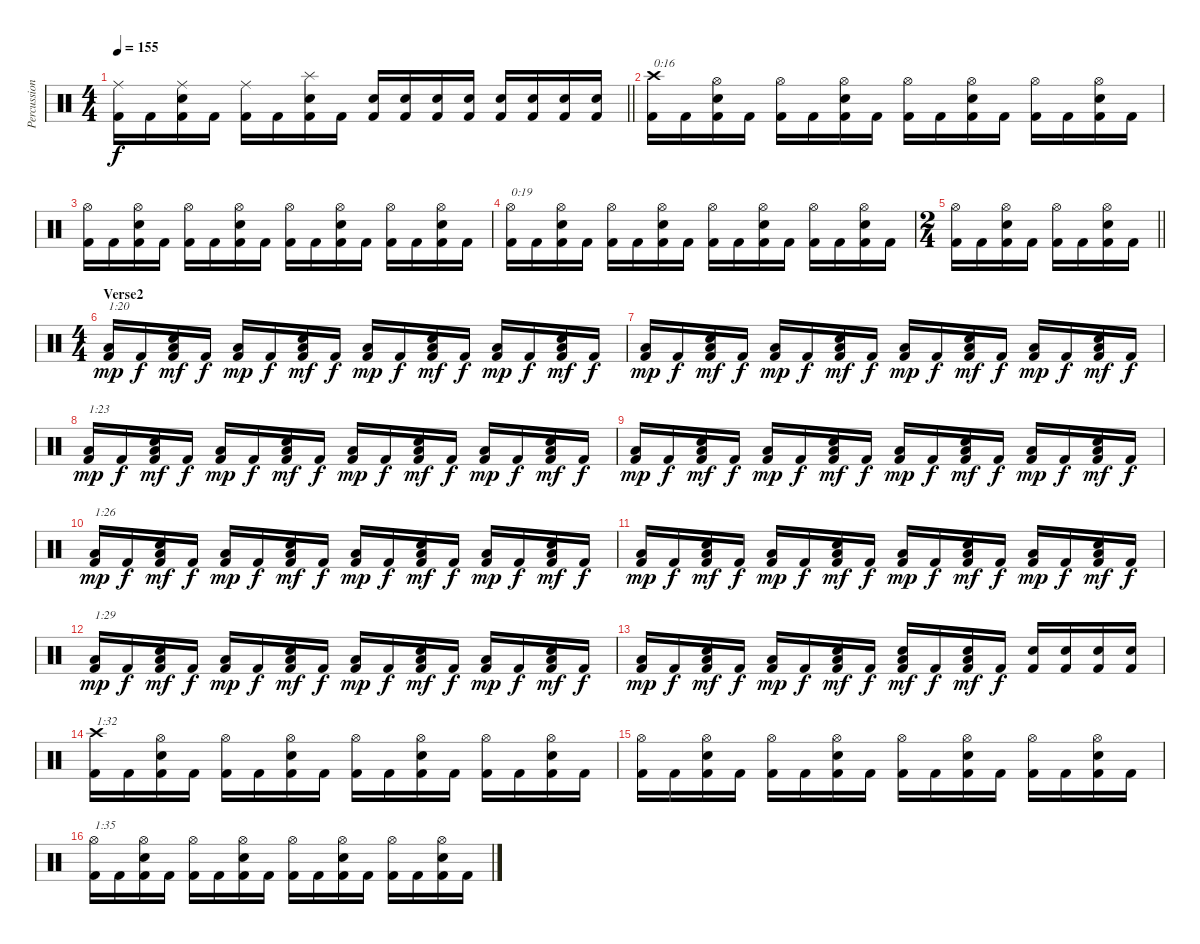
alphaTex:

\track ("Percussion" "Percussion") {instrument percussion}
\staff {score}
\articulation defaults
\ts (4 4)
\tempo 155
\clef neutral
\barLineRight lightlight
\ks c
("Ride (middle)" "Kick (hit) 2").16{dy f} "Kick (hit) 2".16 ("Ride (middle)" "Electric Snare (hit)" "Kick (hit) 2").16 "Kick (hit) 2".16 ("Ride (middle)" "Kick (hit) 2").16 "Kick (hit) 2".16 ("Splash (hit)" "Electric Snare (hit)" "Kick (hit) 2").16 "Kick (hit) 2".16 ("Electric Snare (hit)" "Kick (hit) 2").16 ("Electric Snare (hit)" "Kick (hit) 2").16 ("Electric Snare (hit)" "Kick (hit) 2").16 ("Electric Snare (hit)" "Kick (hit) 2").16 ("Electric Snare (hit)" "Kick (hit) 2").16 ("Electric Snare (hit)" "Kick (hit) 2").16 ("Electric Snare (hit)" "Kick (hit) 2").16 ("Electric Snare (hit)" "Kick (hit) 2").16 |
\section ("" "")
("Crash high (hit)" "Kick (hit) 2").16{txt "0:16"} "Kick (hit) 2".16 ("Hi-Hat (open)" "Electric Snare (hit)" "Kick (hit) 2").16 "Kick (hit) 2".16 ("Hi-Hat (open)" "Kick (hit) 2").16 "Kick (hit) 2".16 ("Hi-Hat (open)" "Electric Snare (hit)" "Kick (hit) 2").16 "Kick (hit) 2".16 ("Hi-Hat (open)" "Kick (hit) 2").16 "Kick (hit) 2".16 ("Hi-Hat (open)" "Electric Snare (hit)" "Kick (hit) 2").16 "Kick (hit) 2".16 ("Hi-Hat (open)" "Kick (hit) 2").16 "Kick (hit) 2".16 ("Hi-Hat (open)" "Electric Snare (hit)" "Kick (hit) 2").16 "Kick (hit) 2".16 |
("Hi-Hat (open)" "Kick (hit) 2").16 "Kick (hit) 2".16 ("Hi-Hat (open)" "Electric Snare (hit)" "Kick (hit) 2").16 "Kick (hit) 2".16 ("Hi-Hat (open)" "Kick (hit) 2").16 "Kick (hit) 2".16 ("Hi-Hat (open)" "Electric Snare (hit)" "Kick (hit) 2").16 "Kick (hit) 2".16 ("Hi-Hat (open)" "Kick (hit) 2").16 "Kick (hit) 2".16 ("Hi-Hat (open)" "Electric Snare (hit)" "Kick (hit) 2").16 "Kick (hit) 2".16 ("Hi-Hat (open)" "Kick (hit) 2").16 "Kick (hit) 2".16 ("Hi-Hat (open)" "Electric Snare (hit)" "Kick (hit) 2").16 "Kick (hit) 2".16 |
("Hi-Hat (open)" "Kick (hit) 2").16{txt "0:19"} "Kick (hit) 2".16 ("Hi-Hat (open)" "Electric Snare (hit)" "Kick (hit) 2").16 "Kick (hit) 2".16 ("Hi-Hat (open)" "Kick (hit) 2").16 "Kick (hit) 2".16 ("Hi-Hat (open)" "Electric Snare (hit)" "Kick (hit) 2").16 "Kick (hit) 2".16 ("Hi-Hat (open)" "Kick (hit) 2").16 "Kick (hit) 2".16 ("Hi-Hat (open)" "Electric Snare (hit)" "Kick (hit) 2").16 "Kick (hit) 2".16 ("Hi-Hat (open)" "Kick (hit) 2").16 "Kick (hit) 2".16 ("Hi-Hat (open)" "Electric Snare (hit)" "Kick (hit) 2").16 "Kick (hit) 2".16 |
\ts (2 4)
\barLineRight lightlight
("Hi-Hat (open)" "Kick (hit) 2").16 "Kick (hit) 2".16 ("Hi-Hat (open)" "Electric Snare (hit)" "Kick (hit) 2").16 "Kick (hit) 2".16 ("Hi-Hat (open)" "Kick (hit) 2").16 "Kick (hit) 2".16 ("Hi-Hat (open)" "Electric Snare (hit)" "Kick (hit) 2").16 "Kick (hit) 2".16 |
\ts (4 4)
\section ("" "Verse2")
("Low Floor Tom (hit)" "Kick (hit) 2").16{txt "1:20" dy mp} "Kick (hit) 2".16{dy f} ("Low Floor Tom (hit)" "Electric Snare (hit)" "Kick (hit) 2").16{dy mf} "Kick (hit) 2".16{dy f} ("Low Floor Tom (hit)" "Kick (hit) 2").16{dy mp} "Kick (hit) 2".16{dy f} ("Low Floor Tom (hit)" "Electric Snare (hit)" "Kick (hit) 2").16{dy mf} "Kick (hit) 2".16{dy f} ("Low Floor Tom (hit)" "Kick (hit) 2").16{dy mp} "Kick (hit) 2".16{dy f} ("Low Floor Tom (hit)" "Electric Snare (hit)" "Kick (hit) 2").16{dy mf} "Kick (hit) 2".16{dy f} ("Low Floor Tom (hit)" "Kick (hit) 2").16{dy mp} "Kick (hit) 2".16{dy f} ("Low Floor Tom (hit)" "Electric Snare (hit)" "Kick (hit) 2").16{dy mf} "Kick (hit) 2".16{dy f} |
("Low Floor Tom (hit)" "Kick (hit) 2").16{dy mp} "Kick (hit) 2".16{dy f} ("Low Floor Tom (hit)" "Electric Snare (hit)" "Kick (hit) 2").16{dy mf} "Kick (hit) 2".16{dy f} ("Low Floor Tom (hit)" "Kick (hit) 2").16{dy mp} "Kick (hit) 2".16{dy f} ("Low Floor Tom (hit)" "Electric Snare (hit)" "Kick (hit) 2").16{dy mf} "Kick (hit) 2".16{dy f} ("Low Floor Tom (hit)" "Kick (hit) 2").16{dy mp} "Kick (hit) 2".16{dy f} ("Low Floor Tom (hit)" "Electric Snare (hit)" "Kick (hit) 2").16{dy mf} "Kick (hit) 2".16{dy f} ("Low Floor Tom (hit)" "Kick (hit) 2").16{dy mp} "Kick (hit) 2".16{dy f} ("Low Floor Tom (hit)" "Electric Snare (hit)" "Kick (hit) 2").16{dy mf} "Kick (hit) 2".16{dy f} |
("Low Floor Tom (hit)" "Kick (hit) 2").16{txt "1:23" dy mp} "Kick (hit) 2".16{dy f} ("Low Floor Tom (hit)" "Electric Snare (hit)" "Kick (hit) 2").16{dy mf} "Kick (hit) 2".16{dy f} ("Low Floor Tom (hit)" "Kick (hit) 2").16{dy mp} "Kick (hit) 2".16{dy f} ("Low Floor Tom (hit)" "Electric Snare (hit)" "Kick (hit) 2").16{dy mf} "Kick (hit) 2".16{dy f} ("Low Floor Tom (hit)" "Kick (hit) 2").16{dy mp} "Kick (hit) 2".16{dy f} ("Low Floor Tom (hit)" "Electric Snare (hit)" "Kick (hit) 2").16{dy mf} "Kick (hit) 2".16{dy f} ("Low Floor Tom (hit)" "Kick (hit) 2").16{dy mp} "Kick (hit) 2".16{dy f} ("Low Floor Tom (hit)" "Electric Snare (hit)" "Kick (hit) 2").16{dy mf} "Kick (hit) 2".16{dy f} |
("Low Floor Tom (hit)" "Kick (hit) 2").16{dy mp} "Kick (hit) 2".16{dy f} ("Low Floor Tom (hit)" "Electric Snare (hit)" "Kick (hit) 2").16{dy mf} "Kick (hit) 2".16{dy f} ("Low Floor Tom (hit)" "Kick (hit) 2").16{dy mp} "Kick (hit) 2".16{dy f} ("Low Floor Tom (hit)" "Electric Snare (hit)" "Kick (hit) 2").16{dy mf} "Kick (hit) 2".16{dy f} ("Low Floor Tom (hit)" "Kick (hit) 2").16{dy mp} "Kick (hit) 2".16{dy f} ("Low Floor Tom (hit)" "Electric Snare (hit)" "Kick (hit) 2").16{dy mf} "Kick (hit) 2".16{dy f} ("Low Floor Tom (hit)" "Kick (hit) 2").16{dy mp} "Kick (hit) 2".16{dy f} ("Low Floor Tom (hit)" "Electric Snare (hit)" "Kick (hit) 2").16{dy mf} "Kick (hit) 2".16{dy f} |
("Low Floor Tom (hit)" "Kick (hit) 2").16{txt "1:26" dy mp} "Kick (hit) 2".16{dy f} ("Low Floor Tom (hit)" "Electric Snare (hit)" "Kick (hit) 2").16{dy mf} "Kick (hit) 2".16{dy f} ("Low Floor Tom (hit)" "Kick (hit) 2").16{dy mp} "Kick (hit) 2".16{dy f} ("Low Floor Tom (hit)" "Electric Snare (hit)" "Kick (hit) 2").16{dy mf} "Kick (hit) 2".16{dy f} ("Low Floor Tom (hit)" "Kick (hit) 2").16{dy mp} "Kick (hit) 2".16{dy f} ("Low Floor Tom (hit)" "Electric Snare (hit)" "Kick (hit) 2").16{dy mf} "Kick (hit) 2".16{dy f} ("Low Floor Tom (hit)" "Kick (hit) 2").16{dy mp} "Kick (hit) 2".16{dy f} ("Low Floor Tom (hit)" "Electric Snare (hit)" "Kick (hit) 2").16{dy mf} "Kick (hit) 2".16{dy f} |
("Low Floor Tom (hit)" "Kick (hit) 2").16{dy mp} "Kick (hit) 2".16{dy f} ("Low Floor Tom (hit)" "Electric Snare (hit)" "Kick (hit) 2").16{dy mf} "Kick (hit) 2".16{dy f} ("Low Floor Tom (hit)" "Kick (hit) 2").16{dy mp} "Kick (hit) 2".16{dy f} ("Low Floor Tom (hit)" "Electric Snare (hit)" "Kick (hit) 2").16{dy mf} "Kick (hit) 2".16{dy f} ("Low Floor Tom (hit)" "Kick (hit) 2").16{dy mp} "Kick (hit) 2".16{dy f} ("Low Floor Tom (hit)" "Electric Snare (hit)" "Kick (hit) 2").16{dy mf} "Kick (hit) 2".16{dy f} ("Low Floor Tom (hit)" "Kick (hit) 2").16{dy mp} "Kick (hit) 2".16{dy f} ("Low Floor Tom (hit)" "Electric Snare (hit)" "Kick (hit) 2").16{dy mf} "Kick (hit) 2".16{dy f} |
("Low Floor Tom (hit)" "Kick (hit) 2").16{txt "1:29" dy mp} "Kick (hit) 2".16{dy f} ("Low Floor Tom (hit)" "Electric Snare (hit)" "Kick (hit) 2").16{dy mf} "Kick (hit) 2".16{dy f} ("Low Floor Tom (hit)" "Kick (hit) 2").16{dy mp} "Kick (hit) 2".16{dy f} ("Low Floor Tom (hit)" "Electric Snare (hit)" "Kick (hit) 2").16{dy mf} "Kick (hit) 2".16{dy f} ("Low Floor Tom (hit)" "Kick (hit) 2").16{dy mp} "Kick (hit) 2".16{dy f} ("Low Floor Tom (hit)" "Electric Snare (hit)" "Kick (hit) 2").16{dy mf} "Kick (hit) 2".16{dy f} ("Low Floor Tom (hit)" "Kick (hit) 2").16{dy mp} "Kick (hit) 2".16{dy f} ("Low Floor Tom (hit)" "Electric Snare (hit)" "Kick (hit) 2").16{dy mf} "Kick (hit) 2".16{dy f} |
("Low Floor Tom (hit)" "Kick (hit) 2").16{dy mp} "Kick (hit) 2".16{dy f} ("Low Floor Tom (hit)" "Electric Snare (hit)" "Kick (hit) 2").16{dy mf} "Kick (hit) 2".16{dy f} ("Low Floor Tom (hit)" "Kick (hit) 2").16{dy mp} "Kick (hit) 2".16{dy f} ("Low Floor Tom (hit)" "Electric Snare (hit)" "Kick (hit) 2").16{dy mf} "Kick (hit) 2".16{dy f} ("Low Floor Tom (hit)" "Electric Snare (hit)" "Kick (hit) 2").16{dy mf} "Kick (hit) 2".16{dy f} ("Low Floor Tom (hit)" "Electric Snare (hit)" "Kick (hit) 2").16{dy mf} "Kick (hit) 2".16{dy f} ("Electric Snare (hit)" "Kick (hit) 2").16 ("Electric Snare (hit)" "Kick (hit) 2").16 ("Electric Snare (hit)" "Kick (hit) 2").16 ("Electric Snare (hit)" "Kick (hit) 2").16 |
("Crash high (hit)" "Kick (hit) 2").16{txt "1:32"} "Kick (hit) 2".16 ("Hi-Hat (open)" "Electric Snare (hit)" "Kick (hit) 2").16 "Kick (hit) 2".16 ("Hi-Hat (open)" "Kick (hit) 2").16 "Kick (hit) 2".16 ("Hi-Hat (open)" "Electric Snare (hit)" "Kick (hit) 2").16 "Kick (hit) 2".16 ("Hi-Hat (open)" "Kick (hit) 2").16 "Kick (hit) 2".16 ("Hi-Hat (open)" "Electric Snare (hit)" "Kick (hit) 2").16 "Kick (hit) 2".16 ("Hi-Hat (open)" "Kick (hit) 2").16 "Kick (hit) 2".16 ("Hi-Hat (open)" "Electric Snare (hit)" "Kick (hit) 2").16 "Kick (hit) 2".16 |
("Hi-Hat (open)" "Kick (hit) 2").16 "Kick (hit) 2".16 ("Hi-Hat (open)" "Electric Snare (hit)" "Kick (hit) 2").16 "Kick (hit) 2".16 ("Hi-Hat (open)" "Kick (hit) 2").16 "Kick (hit) 2".16 ("Hi-Hat (open)" "Electric Snare (hit)" "Kick (hit) 2").16 "Kick (hit) 2".16 ("Hi-Hat (open)" "Kick (hit) 2").16 "Kick (hit) 2".16 ("Hi-Hat (open)" "Electric Snare (hit)" "Kick (hit) 2").16 "Kick (hit) 2".16 ("Hi-Hat (open)" "Kick (hit) 2").16 "Kick (hit) 2".16 ("Hi-Hat (open)" "Electric Snare (hit)" "Kick (hit) 2").16 "Kick (hit) 2".16 |
("Hi-Hat (open)" "Kick (hit) 2").16{txt "1:35"} "Kick (hit) 2".16 ("Hi-Hat (open)" "Electric Snare (hit)" "Kick (hit) 2").16 "Kick (hit) 2".16 ("Hi-Hat (open)" "Kick (hit) 2").16 "Kick (hit) 2".16 ("Hi-Hat (open)" "Electric Snare (hit)" "Kick (hit) 2").16 "Kick (hit) 2".16 ("Hi-Hat (open)" "Kick (hit) 2").16 "Kick (hit) 2".16 ("Hi-Hat (open)" "Electric Snare (hit)" "Kick (hit) 2").16 "Kick (hit) 2".16 ("Hi-Hat (open)" "Kick (hit) 2").16 "Kick (hit) 2".16 ("Hi-Hat (open)" "Electric Snare (hit)" "Kick (hit) 2").16 "Kick (hit) 2".16
